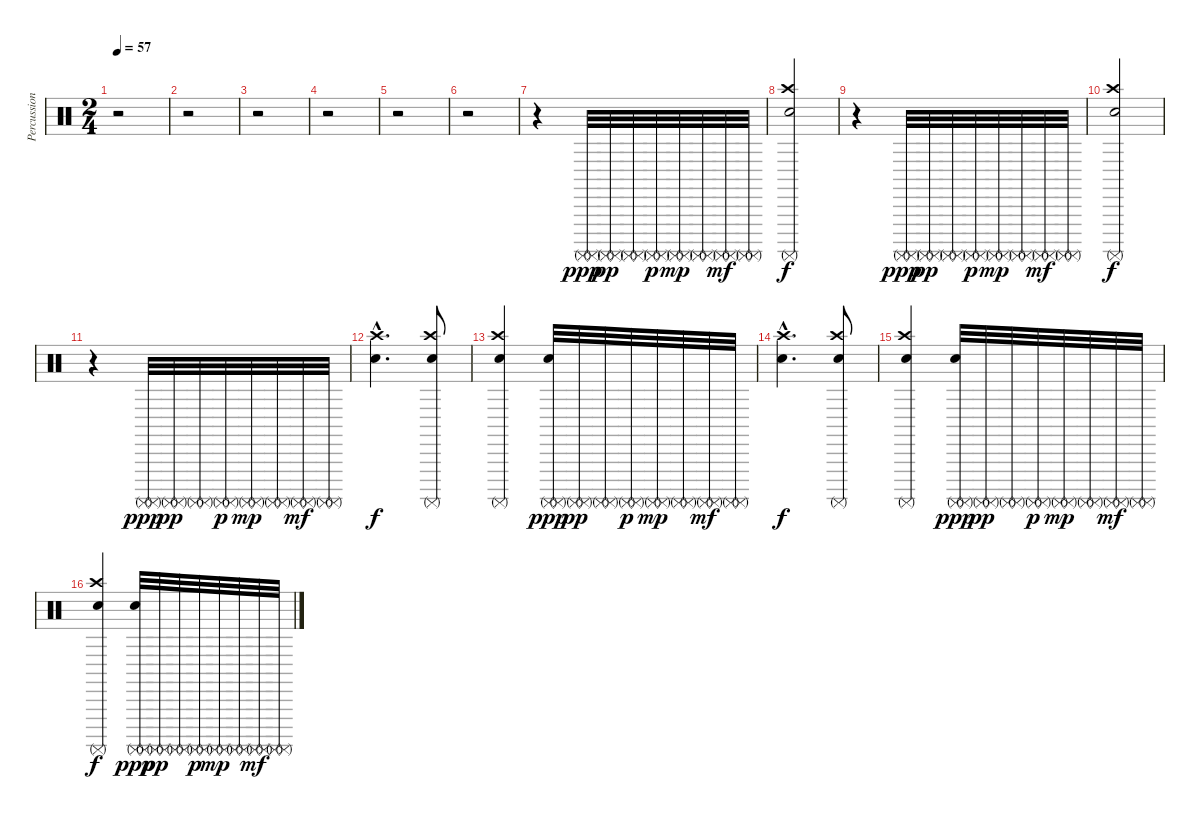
\track ("Percussions" "Percussion") {instrument percussion}
\staff {score}
\articulation defaults
\ts (2 4)
\tempo 57
\clef neutral
\ks c
r.2{dy ppp} |
r.2 |
r.2 |
r.2 |
r.2 |
r.2 |
r.4 ("Surdo (mute)" "Surdo (mute)").32 ("Surdo (mute)" "Surdo (mute)").32{dy pp} ("Surdo (mute)" "Surdo (mute)").32 ("Surdo (mute)" "Surdo (mute)").32{dy p} ("Surdo (mute)" "Surdo (mute)").32{dy mp} ("Surdo (mute)" "Surdo (mute)").32 ("Surdo (mute)" "Surdo (mute)").32{dy mf} ("Surdo (mute)" "Surdo (mute)").32 |
("Crash high (hit)" "Surdo (mute)" "Snare (hit) 2").2{dy f} |
r.4 ("Surdo (mute)" "Surdo (mute)").32{dy ppp} ("Surdo (mute)" "Surdo (mute)").32{dy pp} ("Surdo (mute)" "Surdo (mute)").32 ("Surdo (mute)" "Surdo (mute)").32{dy p} ("Surdo (mute)" "Surdo (mute)").32{dy mp} ("Surdo (mute)" "Surdo (mute)").32 ("Surdo (mute)" "Surdo (mute)").32{dy mf} ("Surdo (mute)" "Surdo (mute)").32 |
("Crash high (hit)" "Surdo (mute)" "Snare (hit) 2").2{dy f} |
r.4 ("Surdo (mute)" "Surdo (mute)").32{dy ppp} ("Surdo (mute)" "Surdo (mute)").32{dy pp} ("Surdo (mute)" "Surdo (mute)").32 ("Surdo (mute)" "Surdo (mute)").32{dy p} ("Surdo (mute)" "Surdo (mute)").32{dy mp} ("Surdo (mute)" "Surdo (mute)").32 ("Surdo (mute)" "Surdo (mute)").32{dy mf} ("Surdo (mute)" "Surdo (mute)").32 |
("Crash high (hit)"{hac} "Snare (hit) 2").4{d dy f} ("Crash high (hit)" "Surdo (mute)" "Snare (hit) 2").8 |
("Crash high (hit)" "Surdo (mute)" "Snare (hit) 2").4 ("Surdo (mute)" "Snare (hit) 2" "Surdo (mute)").32{dy ppp} ("Surdo (mute)" "Surdo (mute)").32{dy pp} ("Surdo (mute)" "Surdo (mute)").32 ("Surdo (mute)" "Surdo (mute)").32{dy p} ("Surdo (mute)" "Surdo (mute)").32{dy mp} ("Surdo (mute)" "Surdo (mute)").32 ("Surdo (mute)" "Surdo (mute)").32{dy mf} ("Surdo (mute)" "Surdo (mute)").32 |
("Crash high (hit)"{hac} "Snare (hit) 2").4{d dy f} ("Crash high (hit)" "Surdo (mute)" "Snare (hit) 2").8 |
("Crash high (hit)" "Surdo (mute)" "Snare (hit) 2").4 ("Surdo (mute)" "Snare (hit) 2" "Surdo (mute)").32{dy ppp} ("Surdo (mute)" "Surdo (mute)").32{dy pp} ("Surdo (mute)" "Surdo (mute)").32 ("Surdo (mute)" "Surdo (mute)").32{dy p} ("Surdo (mute)" "Surdo (mute)").32{dy mp} ("Surdo (mute)" "Surdo (mute)").32 ("Surdo (mute)" "Surdo (mute)").32{dy mf} ("Surdo (mute)" "Surdo (mute)").32 |
("Crash high (hit)" "Surdo (mute)" "Snare (hit) 2").4{dy f} ("Surdo (mute)" "Snare (hit) 2" "Surdo (mute)").32{dy ppp} ("Surdo (mute)" "Surdo (mute)").32{dy pp} ("Surdo (mute)" "Surdo (mute)").32 ("Surdo (mute)" "Surdo (mute)").32{dy p} ("Surdo (mute)" "Surdo (mute)").32{dy mp} ("Surdo (mute)" "Surdo (mute)").32 ("Surdo (mute)" "Surdo (mute)").32{dy mf} ("Surdo (mute)" "Surdo (mute)").32
